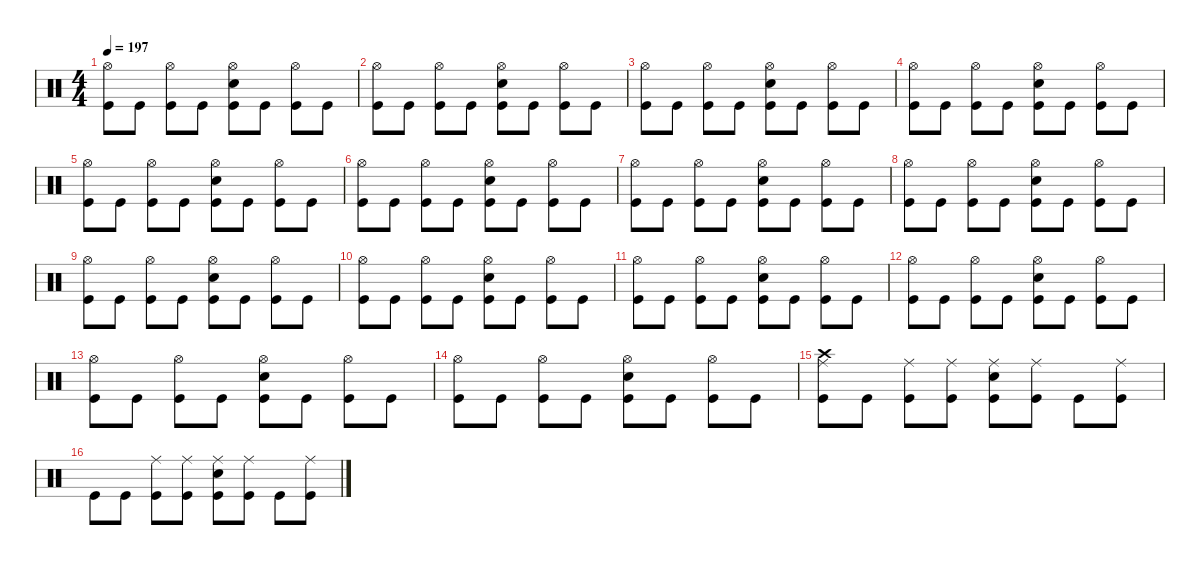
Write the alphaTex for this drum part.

\defaultSystemsLayout 4
\hideDynamics
\bracketExtendMode nobrackets
\singleTrackTrackNamePolicy hidden
\multiTrackTrackNamePolicy hidden
\firstSystemTrackNameMode fullname
\firstSystemTrackNameOrientation horizontal
\otherSystemsTrackNameOrientation horizontal
\track ("Drums" "drm.") {defaultSystemsLayout 4 instrument percussion}
\staff {score}
\articulation defaults
\ts (4 4)
\tempo 197
\clef neutral
\ks c
("Hi-Hat (open)" "Kick (hit)").8{dy f beam Down} "Kick (hit)".8{beam Down} ("Hi-Hat (open)" "Kick (hit)").8{beam Down} "Kick (hit)".8{beam Down} ("Hi-Hat (open)" "Snare (hit) 2" "Kick (hit)").8{beam Down} "Kick (hit)".8{beam Down} ("Hi-Hat (open)" "Kick (hit)").8{beam Down} "Kick (hit)".8{beam Down} |
("Hi-Hat (open)" "Kick (hit)").8{beam Down} "Kick (hit)".8{beam Down} ("Hi-Hat (open)" "Kick (hit)").8{beam Down} "Kick (hit)".8{beam Down} ("Hi-Hat (open)" "Snare (hit) 2" "Kick (hit)").8{beam Down} "Kick (hit)".8{beam Down} ("Hi-Hat (open)" "Kick (hit)").8{beam Down} "Kick (hit)".8{beam Down} |
("Hi-Hat (open)" "Kick (hit)").8{beam Down} "Kick (hit)".8{beam Down} ("Hi-Hat (open)" "Kick (hit)").8{beam Down} "Kick (hit)".8{beam Down} ("Hi-Hat (open)" "Snare (hit) 2" "Kick (hit)").8{beam Down} "Kick (hit)".8{beam Down} ("Hi-Hat (open)" "Kick (hit)").8{beam Down} "Kick (hit)".8{beam Down} |
("Hi-Hat (open)" "Kick (hit)").8{beam Down} "Kick (hit)".8{beam Down} ("Hi-Hat (open)" "Kick (hit)").8{beam Down} "Kick (hit)".8{beam Down} ("Hi-Hat (open)" "Snare (hit) 2" "Kick (hit)").8{beam Down} "Kick (hit)".8{beam Down} ("Hi-Hat (open)" "Kick (hit)").8{beam Down} "Kick (hit)".8{beam Down} |
("Hi-Hat (open)" "Kick (hit)").8{beam Down} "Kick (hit)".8{beam Down} ("Hi-Hat (open)" "Kick (hit)").8{beam Down} "Kick (hit)".8{beam Down} ("Hi-Hat (open)" "Snare (hit) 2" "Kick (hit)").8{beam Down} "Kick (hit)".8{beam Down} ("Hi-Hat (open)" "Kick (hit)").8{beam Down} "Kick (hit)".8{beam Down} |
("Hi-Hat (open)" "Kick (hit)").8{beam Down} "Kick (hit)".8{beam Down} ("Hi-Hat (open)" "Kick (hit)").8{beam Down} "Kick (hit)".8{beam Down} ("Hi-Hat (open)" "Snare (hit) 2" "Kick (hit)").8{beam Down} "Kick (hit)".8{beam Down} ("Hi-Hat (open)" "Kick (hit)").8{beam Down} "Kick (hit)".8{beam Down} |
("Hi-Hat (open)" "Kick (hit)").8{beam Down} "Kick (hit)".8{beam Down} ("Hi-Hat (open)" "Kick (hit)").8{beam Down} "Kick (hit)".8{beam Down} ("Hi-Hat (open)" "Snare (hit) 2" "Kick (hit)").8{beam Down} "Kick (hit)".8{beam Down} ("Hi-Hat (open)" "Kick (hit)").8{beam Down} "Kick (hit)".8{beam Down} |
("Hi-Hat (open)" "Kick (hit)").8{beam Down} "Kick (hit)".8{beam Down} ("Hi-Hat (open)" "Kick (hit)").8{beam Down} "Kick (hit)".8{beam Down} ("Hi-Hat (open)" "Snare (hit) 2" "Kick (hit)").8{beam Down} "Kick (hit)".8{beam Down} ("Hi-Hat (open)" "Kick (hit)").8{beam Down} "Kick (hit)".8{beam Down} |
("Hi-Hat (open)" "Kick (hit)").8{beam Down} "Kick (hit)".8{beam Down} ("Hi-Hat (open)" "Kick (hit)").8{beam Down} "Kick (hit)".8{beam Down} ("Hi-Hat (open)" "Snare (hit) 2" "Kick (hit)").8{beam Down} "Kick (hit)".8{beam Down} ("Hi-Hat (open)" "Kick (hit)").8{beam Down} "Kick (hit)".8{beam Down} |
("Hi-Hat (open)" "Kick (hit)").8{beam Down} "Kick (hit)".8{beam Down} ("Hi-Hat (open)" "Kick (hit)").8{beam Down} "Kick (hit)".8{beam Down} ("Hi-Hat (open)" "Snare (hit) 2" "Kick (hit)").8{beam Down} "Kick (hit)".8{beam Down} ("Hi-Hat (open)" "Kick (hit)").8{beam Down} "Kick (hit)".8{beam Down} |
("Hi-Hat (open)" "Kick (hit)").8{beam Down} "Kick (hit)".8{beam Down} ("Hi-Hat (open)" "Kick (hit)").8{beam Down} "Kick (hit)".8{beam Down} ("Hi-Hat (open)" "Snare (hit) 2" "Kick (hit)").8{beam Down} "Kick (hit)".8{beam Down} ("Hi-Hat (open)" "Kick (hit)").8{beam Down} "Kick (hit)".8{beam Down} |
("Hi-Hat (open)" "Kick (hit)").8{beam Down} "Kick (hit)".8{beam Down} ("Hi-Hat (open)" "Kick (hit)").8{beam Down} "Kick (hit)".8{beam Down} ("Hi-Hat (open)" "Snare (hit) 2" "Kick (hit)").8{beam Down} "Kick (hit)".8{beam Down} ("Hi-Hat (open)" "Kick (hit)").8{beam Down} "Kick (hit)".8{beam Down} |
("Hi-Hat (open)" "Kick (hit)").8{beam Down} "Kick (hit)".8{beam Down} ("Hi-Hat (open)" "Kick (hit)").8{beam Down} "Kick (hit)".8{beam Down} ("Hi-Hat (open)" "Snare (hit) 2" "Kick (hit)").8{beam Down} "Kick (hit)".8{beam Down} ("Hi-Hat (open)" "Kick (hit)").8{beam Down} "Kick (hit)".8{beam Down} |
("Hi-Hat (open)" "Kick (hit)").8{beam Down} "Kick (hit)".8{beam Down} ("Hi-Hat (open)" "Kick (hit)").8{beam Down} "Kick (hit)".8{beam Down} ("Hi-Hat (open)" "Snare (hit) 2" "Kick (hit)").8{beam Down} "Kick (hit)".8{beam Down} ("Hi-Hat (open)" "Kick (hit)").8{beam Down} "Kick (hit)".8{beam Down} |
("Crash high (hit)" "Ride (middle)" "Kick (hit)").8{beam Down} "Kick (hit)".8{beam Down} ("Ride (middle)" "Kick (hit)").8{beam Down} ("Ride (middle)" "Kick (hit)").8{beam Down} ("Ride (middle)" "Snare (hit) 2" "Kick (hit)").8{beam Down} ("Ride (middle)" "Kick (hit)").8{beam Down} "Kick (hit)".8{beam Down} ("Ride (middle)" "Kick (hit)").8{beam Down} |
"Kick (hit)".8{beam Down} "Kick (hit)".8{beam Down} ("Ride (middle)" "Kick (hit)").8{beam Down} ("Ride (middle)" "Kick (hit)").8{beam Down} ("Ride (middle)" "Snare (hit) 2" "Kick (hit)").8{beam Down} ("Ride (middle)" "Kick (hit)").8{beam Down} "Kick (hit)".8{beam Down} ("Ride (middle)" "Kick (hit)").8{beam Down}
